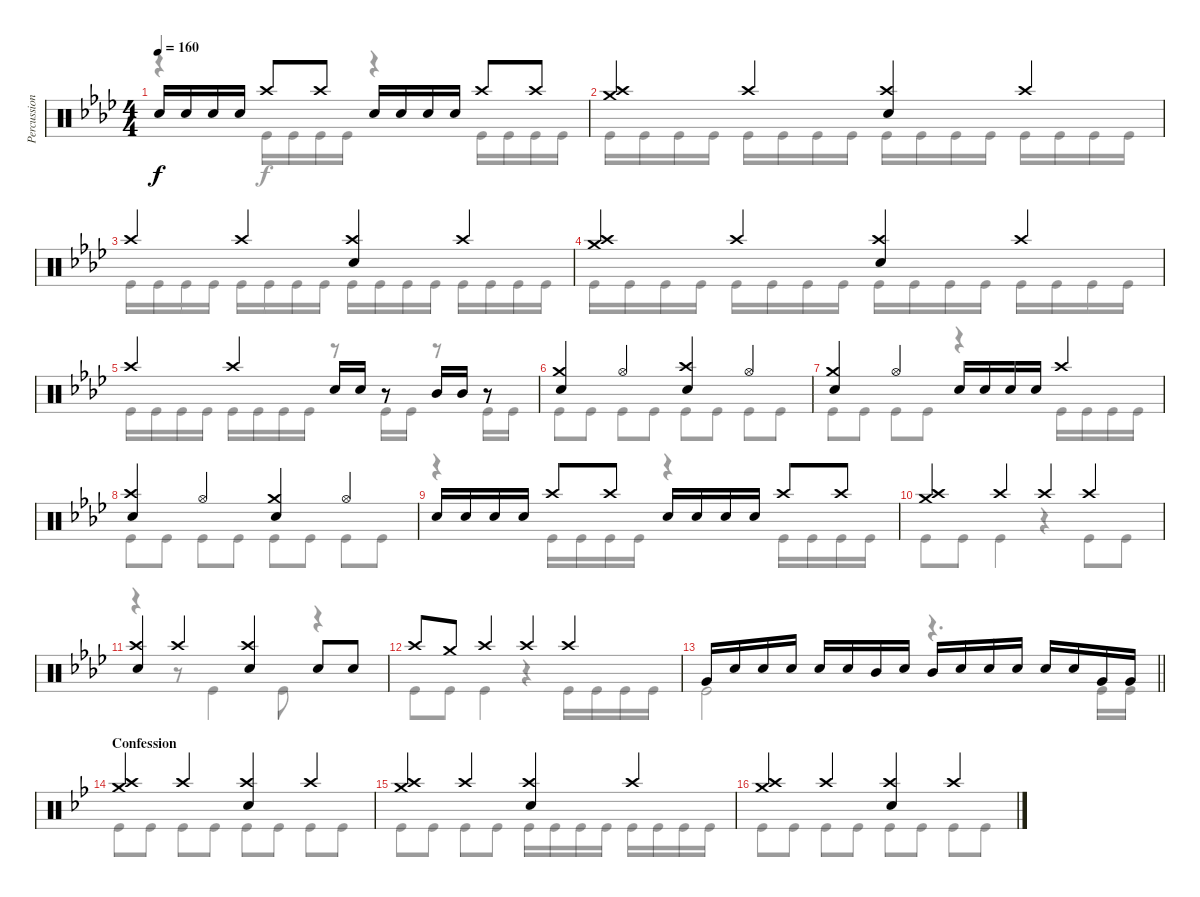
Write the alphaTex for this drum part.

\track ("Percussion" "Percussion") {instrument percussion}
\staff {score}
\articulation defaults
\voice
\ts (4 4)
\tempo 160
\clef neutral
\ks fminor "Electric Snare (hit)".16{dy f} "Electric Snare (hit)".16 "Electric Snare (hit)".16 "Electric Snare (hit)".16 "Crash high (hit)".8 "Crash high (hit)".8 "Electric Snare (hit)".16 "Electric Snare (hit)".16 "Electric Snare (hit)".16 "Electric Snare (hit)".16 "Crash high (hit)".8 "Crash high (hit)".8
|
("Crash medium (hit)" "Crash high (hit)").4 "Crash high (hit)".4 ("Crash high (hit)" "Electric Snare (hit)").4 "Crash high (hit)".4 |
"Crash high (hit)".4 "Crash high (hit)".4 ("Crash high (hit)" "Electric Snare (hit)").4 "Crash high (hit)".4 |
("Crash medium (hit)" "Crash high (hit)").4 "Crash high (hit)".4 ("Crash high (hit)" "Electric Snare (hit)").4 "Crash high (hit)".4 |
"Crash high (hit)".4 "Crash high (hit)".4 "Electric Snare (hit)".16 "Electric Snare (hit)".16 r.8 "Mid Tom (hit)".16 "Mid Tom (hit)".16 r.8 |
("Crash medium (hit)" "Electric Snare (hit)").4 "Hi-Hat (open)".4 ("Crash high (hit)" "Electric Snare (hit)").4 "Hi-Hat (open)".4 |
("Crash medium (hit)" "Electric Snare (hit)").4 "Hi-Hat (open)".4 "Electric Snare (hit)".16 "Electric Snare (hit)".16 "Electric Snare (hit)".16 "Electric Snare (hit)".16 "Crash high (hit)".4 |
("Crash high (hit)" "Electric Snare (hit)").4 "Hi-Hat (open)".4 ("Crash medium (hit)" "Electric Snare (hit)").4 "Hi-Hat (open)".4 |
"Electric Snare (hit)".16 "Electric Snare (hit)".16 "Electric Snare (hit)".16 "Electric Snare (hit)".16 "Crash high (hit)".8 "Crash high (hit)".8 "Electric Snare (hit)".16 "Electric Snare (hit)".16 "Electric Snare (hit)".16 "Electric Snare (hit)".16 "Crash high (hit)".8 "Crash high (hit)".8 |
("Crash medium (hit)" "Crash high (hit)").4 "Crash high (hit)".4 "Crash high (hit)".4 "Crash high (hit)".4 |
("Crash high (hit)" "Electric Snare (hit)").4 "Crash high (hit)".4 ("Crash high (hit)" "Electric Snare (hit)").4 "Electric Snare (hit)".8 "Electric Snare (hit)".8 |
"Crash high (hit)".8 "Crash medium (hit)".8 "Crash high (hit)".4 "Crash high (hit)".4 "Crash high (hit)".4 |
\barLineRight lightlight "Very Low Tom (hit)".16 "Electric Snare (hit)".16 "Electric Snare (hit)".16 "Electric Snare (hit)".16 "Electric Snare (hit)".16 "Electric Snare (hit)".16 "Mid Tom (hit)".16 "Electric Snare (hit)".16 "Mid Tom (hit)".16 "Electric Snare (hit)".16 "Electric Snare (hit)".16 "Electric Snare (hit)".16 "Electric Snare (hit)".16 "Electric Snare (hit)".16 "Very Low Tom (hit)".16 "Very Low Tom (hit)".16
|
\section ("" "Confession")
\ks gminor
("Crash medium (hit)" "Crash high (hit)").4 "Crash high (hit)".4 ("Crash high (hit)" "Electric Snare (hit)").4 "Crash high (hit)".4 |
("Crash medium (hit)" "Crash high (hit)").4 "Crash high (hit)".4 ("Crash high (hit)" "Electric Snare (hit)").4 "Crash high (hit)".4 |
("Crash medium (hit)" "Crash high (hit)").4 "Crash high (hit)".4 ("Crash high (hit)" "Electric Snare (hit)").4 "Crash high (hit)".4
\voice
\clef neutral
\ottava regular
\simile none
\ks fminor
r.4{dy f} "Kick (hit)".16 "Kick (hit)".16 "Kick (hit)".16 "Kick (hit)".16 r.4 "Kick (hit)".16 "Kick (hit)".16 "Kick (hit)".16 "Kick (hit)".16 |
"Kick (hit)".16 "Kick (hit)".16 "Kick (hit)".16 "Kick (hit)".16 "Kick (hit)".16 "Kick (hit)".16 "Kick (hit)".16 "Kick (hit)".16 "Kick (hit)".16 "Kick (hit)".16 "Kick (hit)".16 "Kick (hit)".16 "Kick (hit)".16 "Kick (hit)".16 "Kick (hit)".16 "Kick (hit)".16 |
"Kick (hit)".16 "Kick (hit)".16 "Kick (hit)".16 "Kick (hit)".16 "Kick (hit)".16 "Kick (hit)".16 "Kick (hit)".16 "Kick (hit)".16 "Kick (hit)".16 "Kick (hit)".16 "Kick (hit)".16 "Kick (hit)".16 "Kick (hit)".16 "Kick (hit)".16 "Kick (hit)".16 "Kick (hit)".16 |
"Kick (hit)".16 "Kick (hit)".16 "Kick (hit)".16 "Kick (hit)".16 "Kick (hit)".16 "Kick (hit)".16 "Kick (hit)".16 "Kick (hit)".16 "Kick (hit)".16 "Kick (hit)".16 "Kick (hit)".16 "Kick (hit)".16 "Kick (hit)".16 "Kick (hit)".16 "Kick (hit)".16 "Kick (hit)".16 |
"Kick (hit)".16 "Kick (hit)".16 "Kick (hit)".16 "Kick (hit)".16 "Kick (hit)".16 "Kick (hit)".16 "Kick (hit)".16 "Kick (hit)".16 r.8 "Kick (hit)".16 "Kick (hit)".16 r.8 "Kick (hit)".16 "Kick (hit)".16 |
"Kick (hit)".8 "Kick (hit)".8 "Kick (hit)".8 "Kick (hit)".8 "Kick (hit)".8 "Kick (hit)".8 "Kick (hit)".8 "Kick (hit)".8 |
"Kick (hit)".8 "Kick (hit)".8 "Kick (hit)".8 "Kick (hit)".8 r.4 "Kick (hit)".16 "Kick (hit)".16 "Kick (hit)".16 "Kick (hit)".16 |
"Kick (hit)".8 "Kick (hit)".8 "Kick (hit)".8 "Kick (hit)".8 "Kick (hit)".8 "Kick (hit)".8 "Kick (hit)".8 "Kick (hit)".8 |
r.4 "Kick (hit)".16 "Kick (hit)".16 "Kick (hit)".16 "Kick (hit)".16 r.4 "Kick (hit)".16 "Kick (hit)".16 "Kick (hit)".16 "Kick (hit)".16 |
"Kick (hit)".8 "Kick (hit)".8 "Kick (hit)".4 r.4 "Kick (hit)".8 "Kick (hit)".8 |
r.4 r.8 "Kick (hit)".4 "Kick (hit)".8 r.4 |
"Kick (hit)".8 "Kick (hit)".8 "Kick (hit)".4 r.4 "Kick (hit)".16 "Kick (hit)".16 "Kick (hit)".16 "Kick (hit)".16 |
\barLineRight lightlight "Kick (hit)".2
r.4{d} "Kick (hit)".16 "Kick (hit)".16 |
\ks gminor "Kick (hit)".8 "Kick (hit)".8 "Kick (hit)".8 "Kick (hit)".8 "Kick (hit)".8 "Kick (hit)".8 "Kick (hit)".8 "Kick (hit)".8
|
"Kick (hit)".8 "Kick (hit)".8 "Kick (hit)".8 "Kick (hit)".8 "Kick (hit)".16 "Kick (hit)".16 "Kick (hit)".16 "Kick (hit)".16 "Kick (hit)".16 "Kick (hit)".16 "Kick (hit)".16 "Kick (hit)".16 |
"Kick (hit)".8 "Kick (hit)".8 "Kick (hit)".8 "Kick (hit)".8 "Kick (hit)".8 "Kick (hit)".8 "Kick (hit)".8 "Kick (hit)".8
